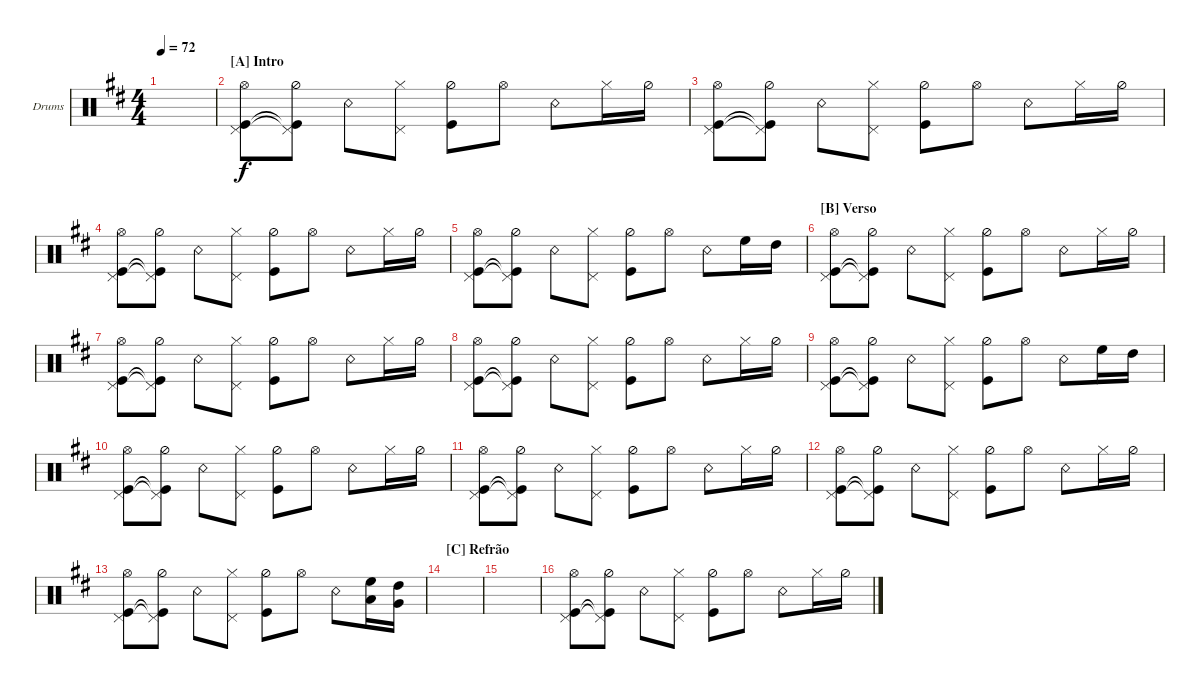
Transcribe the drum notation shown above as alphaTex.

\defaultSystemsLayout 4
\bracketExtendMode groupsimilarinstruments
\firstSystemTrackNameOrientation horizontal
\otherSystemsTrackNameOrientation horizontal
\track ("Drum" "Drums") {multiBarRest instrument percussion}
\staff {score}
\articulation defaults
\ts (4 4)
\tempo 72
\clef neutral
\ks d
|
\section ("A" "Intro")
("Kick (hit)" "Pedal Hi-Hat (hit)" "Hi-Hat (open)").8 ("Kick (hit)"{t} "Pedal Hi-Hat (hit)"{t} "Hi-Hat (half)").8 "Snare (rim shot)".8 ("Hi-Hat (closed)" "Pedal Hi-Hat (hit)").8 ("Hi-Hat (half)" "Kick (hit)").8 "Hi-Hat (open)".8 "Snare (rim shot)".8 "Hi-Hat (closed)".16 "Hi-Hat (half)".16 |
("Kick (hit)" "Pedal Hi-Hat (hit)" "Hi-Hat (open)").8 ("Kick (hit)"{t} "Pedal Hi-Hat (hit)"{t} "Hi-Hat (half)").8 "Snare (rim shot)".8 ("Hi-Hat (closed)" "Pedal Hi-Hat (hit)").8 ("Hi-Hat (half)" "Kick (hit)").8 "Hi-Hat (open)".8 "Snare (rim shot)".8 "Hi-Hat (closed)".16 "Hi-Hat (half)".16 |
("Kick (hit)" "Pedal Hi-Hat (hit)" "Hi-Hat (open)").8 ("Kick (hit)"{t} "Pedal Hi-Hat (hit)"{t} "Hi-Hat (half)").8 "Snare (rim shot)".8 ("Hi-Hat (closed)" "Pedal Hi-Hat (hit)").8 ("Hi-Hat (half)" "Kick (hit)").8 "Hi-Hat (open)".8 "Snare (rim shot)".8 "Hi-Hat (closed)".16 "Hi-Hat (half)".16 |
("Kick (hit)" "Pedal Hi-Hat (hit)" "Hi-Hat (open)").8 ("Kick (hit)"{t} "Pedal Hi-Hat (hit)"{t} "Hi-Hat (half)").8 "Snare (rim shot)".8 ("Hi-Hat (closed)" "Pedal Hi-Hat (hit)").8 ("Hi-Hat (half)" "Kick (hit)").8 "Hi-Hat (open)".8 "Snare (rim shot)".8 "High Floor Tom (hit)".16 "High Tom (hit)".16 |
\section ("B" "Verso")
("Kick (hit)" "Pedal Hi-Hat (hit)" "Hi-Hat (open)").8 ("Kick (hit)"{t} "Pedal Hi-Hat (hit)"{t} "Hi-Hat (half)").8 "Snare (rim shot)".8 ("Hi-Hat (closed)" "Pedal Hi-Hat (hit)").8 ("Hi-Hat (half)" "Kick (hit)").8 "Hi-Hat (open)".8 "Snare (rim shot)".8 "Hi-Hat (closed)".16 "Hi-Hat (half)".16 |
("Kick (hit)" "Pedal Hi-Hat (hit)" "Hi-Hat (open)").8 ("Kick (hit)"{t} "Pedal Hi-Hat (hit)"{t} "Hi-Hat (half)").8 "Snare (rim shot)".8 ("Hi-Hat (closed)" "Pedal Hi-Hat (hit)").8 ("Hi-Hat (half)" "Kick (hit)").8 "Hi-Hat (open)".8 "Snare (rim shot)".8 "Hi-Hat (closed)".16 "Hi-Hat (half)".16 |
("Kick (hit)" "Pedal Hi-Hat (hit)" "Hi-Hat (open)").8 ("Kick (hit)"{t} "Pedal Hi-Hat (hit)"{t} "Hi-Hat (half)").8 "Snare (rim shot)".8 ("Hi-Hat (closed)" "Pedal Hi-Hat (hit)").8 ("Hi-Hat (half)" "Kick (hit)").8 "Hi-Hat (open)".8 "Snare (rim shot)".8 "Hi-Hat (closed)".16 "Hi-Hat (half)".16 |
("Kick (hit)" "Pedal Hi-Hat (hit)" "Hi-Hat (open)").8 ("Kick (hit)"{t} "Pedal Hi-Hat (hit)"{t} "Hi-Hat (half)").8 "Snare (rim shot)".8 ("Hi-Hat (closed)" "Pedal Hi-Hat (hit)").8 ("Hi-Hat (half)" "Kick (hit)").8 "Hi-Hat (open)".8 "Snare (rim shot)".8 "High Floor Tom (hit)".16 "High Tom (hit)".16 |
("Kick (hit)" "Pedal Hi-Hat (hit)" "Hi-Hat (open)").8 ("Kick (hit)"{t} "Pedal Hi-Hat (hit)"{t} "Hi-Hat (half)").8 "Snare (rim shot)".8 ("Hi-Hat (closed)" "Pedal Hi-Hat (hit)").8 ("Hi-Hat (half)" "Kick (hit)").8 "Hi-Hat (open)".8 "Snare (rim shot)".8 "Hi-Hat (closed)".16 "Hi-Hat (half)".16 |
("Kick (hit)" "Pedal Hi-Hat (hit)" "Hi-Hat (open)").8 ("Kick (hit)"{t} "Pedal Hi-Hat (hit)"{t} "Hi-Hat (half)").8 "Snare (rim shot)".8 ("Hi-Hat (closed)" "Pedal Hi-Hat (hit)").8 ("Hi-Hat (half)" "Kick (hit)").8 "Hi-Hat (open)".8 "Snare (rim shot)".8 "Hi-Hat (closed)".16 "Hi-Hat (half)".16 |
("Kick (hit)" "Pedal Hi-Hat (hit)" "Hi-Hat (open)").8 ("Kick (hit)"{t} "Pedal Hi-Hat (hit)"{t} "Hi-Hat (half)").8 "Snare (rim shot)".8 ("Hi-Hat (closed)" "Pedal Hi-Hat (hit)").8 ("Hi-Hat (half)" "Kick (hit)").8 "Hi-Hat (open)".8 "Snare (rim shot)".8 "Hi-Hat (closed)".16 "Hi-Hat (half)".16 |
("Kick (hit)" "Pedal Hi-Hat (hit)" "Hi-Hat (open)").8 ("Kick (hit)"{t} "Pedal Hi-Hat (hit)"{t} "Hi-Hat (half)").8 "Snare (rim shot)".8 ("Hi-Hat (closed)" "Pedal Hi-Hat (hit)").8 ("Hi-Hat (half)" "Kick (hit)").8 "Hi-Hat (open)".8 "Snare (rim shot)".8 ("High Floor Tom (hit)" "Low Tom (hit)").16 ("High Tom (hit)" "Very Low Tom (hit)").16 |
\section ("C" "Refrão")
|
|
("Kick (hit)" "Pedal Hi-Hat (hit)" "Hi-Hat (open)").8 ("Kick (hit)"{t} "Pedal Hi-Hat (hit)"{t} "Hi-Hat (half)").8 "Snare (rim shot)".8 ("Hi-Hat (closed)" "Pedal Hi-Hat (hit)").8 ("Hi-Hat (half)" "Kick (hit)").8 "Hi-Hat (open)".8 "Snare (rim shot)".8 "Hi-Hat (closed)".16 "Hi-Hat (half)".16
